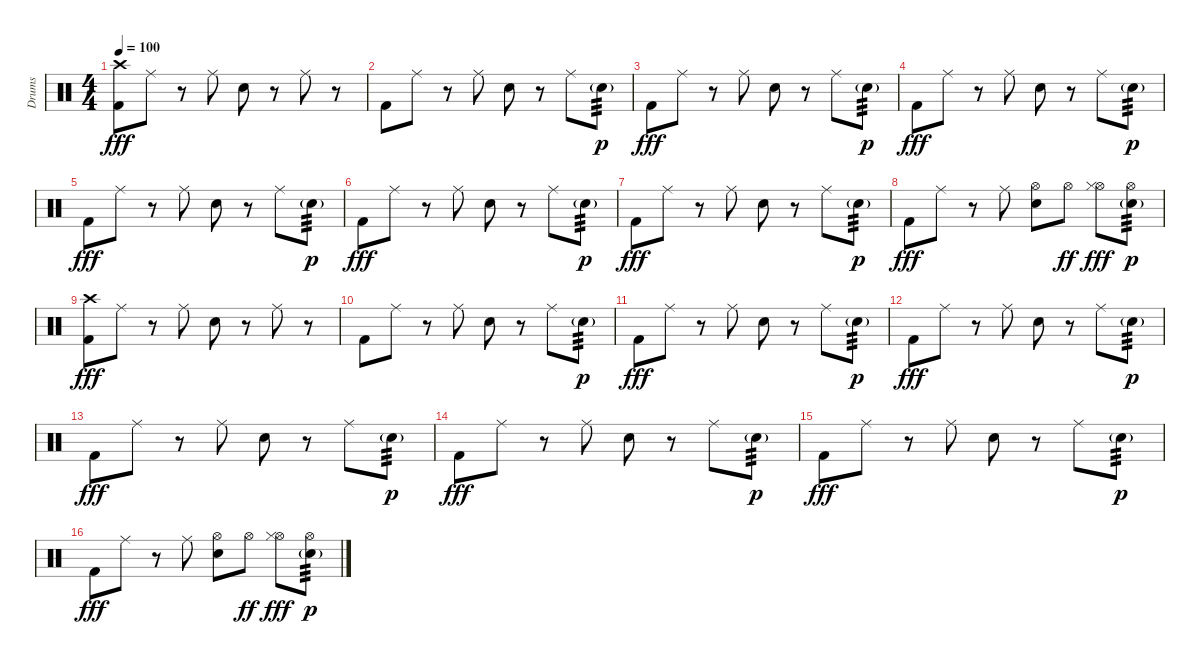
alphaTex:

\track ("Drums" "Drums") {instrument percussion}
\staff {score}
\articulation defaults
\ts (4 4)
\section ("" "")
\tempo 100
\clef neutral
\ks c
("Crash high (hit)" "Kick (hit) 2").8{dy fff} "Ride (middle)".8 r.8 "Ride (middle)".8 "Electric Snare (hit)".8 r.8 "Ride (middle)".8 r.8 |
"Kick (hit) 2".8 "Ride (middle)".8 r.8 "Ride (middle)".8 "Electric Snare (hit)".8 r.8 "Ride (middle)".8 "Electric Snare (hit)"{g}.8{tp 3 dy p} |
"Kick (hit) 2".8{dy fff} "Ride (middle)".8 r.8 "Ride (middle)".8 "Electric Snare (hit)".8 r.8 "Ride (middle)".8 "Electric Snare (hit)"{g}.8{tp 3 dy p} |
"Kick (hit) 2".8{dy fff} "Ride (middle)".8 r.8 "Ride (middle)".8 "Electric Snare (hit)".8 r.8 "Ride (middle)".8 "Electric Snare (hit)"{g}.8{tp 3 dy p} |
"Kick (hit) 2".8{dy fff} "Ride (middle)".8 r.8 "Ride (middle)".8 "Electric Snare (hit)".8 r.8 "Ride (middle)".8 "Electric Snare (hit)"{g}.8{tp 3 dy p} |
"Kick (hit) 2".8{dy fff} "Ride (middle)".8 r.8 "Ride (middle)".8 "Electric Snare (hit)".8 r.8 "Ride (middle)".8 "Electric Snare (hit)"{g}.8{tp 3 dy p} |
"Kick (hit) 2".8{dy fff} "Ride (middle)".8 r.8 "Ride (middle)".8 "Electric Snare (hit)".8 r.8 "Ride (middle)".8 "Electric Snare (hit)"{g}.8{tp 3 dy p} |
"Kick (hit) 2".8{dy fff} "Ride (middle)".8 r.8 "Ride (middle)".8 ("Hi-Hat (open)" "Electric Snare (hit)").8 "Hi-Hat (open)".8{dy ff} ("Hi-Hat (open)" "Hi-Hat (closed)").8{dy fff} ("Hi-Hat (open)" "Electric Snare (hit)"{g}).8{tp 3 dy p} |
("Crash high (hit)" "Kick (hit) 2").8{dy fff} "Ride (middle)".8 r.8 "Ride (middle)".8 "Electric Snare (hit)".8 r.8 "Ride (middle)".8 r.8 |
"Kick (hit) 2".8 "Ride (middle)".8 r.8 "Ride (middle)".8 "Electric Snare (hit)".8 r.8 "Ride (middle)".8 "Electric Snare (hit)"{g}.8{tp 3 dy p} |
"Kick (hit) 2".8{dy fff} "Ride (middle)".8 r.8 "Ride (middle)".8 "Electric Snare (hit)".8 r.8 "Ride (middle)".8 "Electric Snare (hit)"{g}.8{tp 3 dy p} |
"Kick (hit) 2".8{dy fff} "Ride (middle)".8 r.8 "Ride (middle)".8 "Electric Snare (hit)".8 r.8 "Ride (middle)".8 "Electric Snare (hit)"{g}.8{tp 3 dy p} |
"Kick (hit) 2".8{dy fff} "Ride (middle)".8 r.8 "Ride (middle)".8 "Electric Snare (hit)".8 r.8 "Ride (middle)".8 "Electric Snare (hit)"{g}.8{tp 3 dy p} |
"Kick (hit) 2".8{dy fff} "Ride (middle)".8 r.8 "Ride (middle)".8 "Electric Snare (hit)".8 r.8 "Ride (middle)".8 "Electric Snare (hit)"{g}.8{tp 3 dy p} |
"Kick (hit) 2".8{dy fff} "Ride (middle)".8 r.8 "Ride (middle)".8 "Electric Snare (hit)".8 r.8 "Ride (middle)".8 "Electric Snare (hit)"{g}.8{tp 3 dy p} |
"Kick (hit) 2".8{dy fff} "Ride (middle)".8 r.8 "Ride (middle)".8 ("Hi-Hat (open)" "Electric Snare (hit)").8 "Hi-Hat (open)".8{dy ff} ("Hi-Hat (open)" "Hi-Hat (closed)").8{dy fff} ("Hi-Hat (open)" "Electric Snare (hit)"{g}).8{tp 3 dy p}
